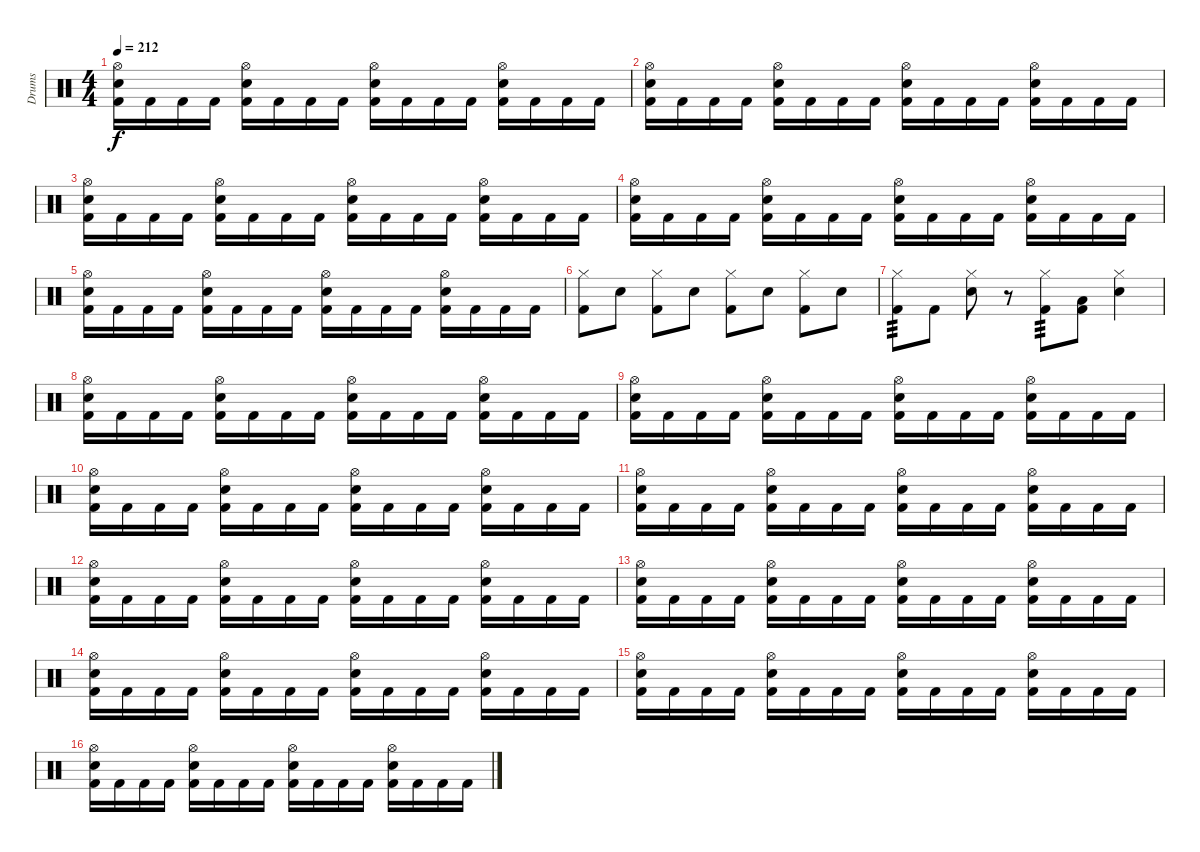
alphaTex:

\track ("Drums" "Drums") {instrument percussion}
\staff {score}
\articulation defaults
\ts (4 4)
\tempo 212
\clef neutral
\ks c
("Hi-Hat (open)" "Snare (hit) 2" "Kick (hit) 2").16{dy f} "Kick (hit) 2".16 "Kick (hit) 2".16 "Kick (hit) 2".16 ("Hi-Hat (open)" "Snare (hit) 2" "Kick (hit) 2").16 "Kick (hit) 2".16 "Kick (hit) 2".16 "Kick (hit) 2".16 ("Hi-Hat (open)" "Snare (hit) 2" "Kick (hit) 2").16 "Kick (hit) 2".16 "Kick (hit) 2".16 "Kick (hit) 2".16 ("Hi-Hat (open)" "Snare (hit) 2" "Kick (hit) 2").16 "Kick (hit) 2".16 "Kick (hit) 2".16 "Kick (hit) 2".16 |
("Hi-Hat (open)" "Snare (hit) 2" "Kick (hit) 2").16 "Kick (hit) 2".16 "Kick (hit) 2".16 "Kick (hit) 2".16 ("Hi-Hat (open)" "Snare (hit) 2" "Kick (hit) 2").16 "Kick (hit) 2".16 "Kick (hit) 2".16 "Kick (hit) 2".16 ("Hi-Hat (open)" "Snare (hit) 2" "Kick (hit) 2").16 "Kick (hit) 2".16 "Kick (hit) 2".16 "Kick (hit) 2".16 ("Hi-Hat (open)" "Snare (hit) 2" "Kick (hit) 2").16 "Kick (hit) 2".16 "Kick (hit) 2".16 "Kick (hit) 2".16 |
("Hi-Hat (open)" "Snare (hit) 2" "Kick (hit) 2").16 "Kick (hit) 2".16 "Kick (hit) 2".16 "Kick (hit) 2".16 ("Hi-Hat (open)" "Snare (hit) 2" "Kick (hit) 2").16 "Kick (hit) 2".16 "Kick (hit) 2".16 "Kick (hit) 2".16 ("Hi-Hat (open)" "Snare (hit) 2" "Kick (hit) 2").16 "Kick (hit) 2".16 "Kick (hit) 2".16 "Kick (hit) 2".16 ("Hi-Hat (open)" "Snare (hit) 2" "Kick (hit) 2").16 "Kick (hit) 2".16 "Kick (hit) 2".16 "Kick (hit) 2".16 |
("Hi-Hat (open)" "Snare (hit) 2" "Kick (hit) 2").16 "Kick (hit) 2".16 "Kick (hit) 2".16 "Kick (hit) 2".16 ("Hi-Hat (open)" "Snare (hit) 2" "Kick (hit) 2").16 "Kick (hit) 2".16 "Kick (hit) 2".16 "Kick (hit) 2".16 ("Hi-Hat (open)" "Snare (hit) 2" "Kick (hit) 2").16 "Kick (hit) 2".16 "Kick (hit) 2".16 "Kick (hit) 2".16 ("Hi-Hat (open)" "Snare (hit) 2" "Kick (hit) 2").16 "Kick (hit) 2".16 "Kick (hit) 2".16 "Kick (hit) 2".16 |
("Hi-Hat (open)" "Snare (hit) 2" "Kick (hit) 2").16 "Kick (hit) 2".16 "Kick (hit) 2".16 "Kick (hit) 2".16 ("Hi-Hat (open)" "Snare (hit) 2" "Kick (hit) 2").16 "Kick (hit) 2".16 "Kick (hit) 2".16 "Kick (hit) 2".16 ("Hi-Hat (open)" "Snare (hit) 2" "Kick (hit) 2").16 "Kick (hit) 2".16 "Kick (hit) 2".16 "Kick (hit) 2".16 ("Hi-Hat (open)" "Snare (hit) 2" "Kick (hit) 2").16 "Kick (hit) 2".16 "Kick (hit) 2".16 "Kick (hit) 2".16 |
("Hi-Hat (closed)" "Kick (hit) 2").8 "Snare (hit) 2".8 ("Hi-Hat (closed)" "Kick (hit) 2").8 "Snare (hit) 2".8 ("Hi-Hat (closed)" "Kick (hit) 2").8 "Snare (hit) 2".8 ("Hi-Hat (closed)" "Kick (hit) 2").8 "Snare (hit) 2".8 |
("Hi-Hat (closed)" "Kick (hit) 2").8{tp 3} "Kick (hit) 2".8 ("Hi-Hat (closed)" "Snare (hit) 2").8 r.8 ("Hi-Hat (closed)" "Kick (hit) 2").8{tp 3} ("Low Tom (hit)" "Kick (hit) 2").8 ("Hi-Hat (closed)" "Snare (hit) 2").4 |
("Hi-Hat (open)" "Snare (hit) 2" "Kick (hit) 2").16 "Kick (hit) 2".16 "Kick (hit) 2".16 "Kick (hit) 2".16 ("Hi-Hat (open)" "Snare (hit) 2" "Kick (hit) 2").16 "Kick (hit) 2".16 "Kick (hit) 2".16 "Kick (hit) 2".16 ("Hi-Hat (open)" "Snare (hit) 2" "Kick (hit) 2").16 "Kick (hit) 2".16 "Kick (hit) 2".16 "Kick (hit) 2".16 ("Hi-Hat (open)" "Snare (hit) 2" "Kick (hit) 2").16 "Kick (hit) 2".16 "Kick (hit) 2".16 "Kick (hit) 2".16 |
("Hi-Hat (open)" "Snare (hit) 2" "Kick (hit) 2").16 "Kick (hit) 2".16 "Kick (hit) 2".16 "Kick (hit) 2".16 ("Hi-Hat (open)" "Snare (hit) 2" "Kick (hit) 2").16 "Kick (hit) 2".16 "Kick (hit) 2".16 "Kick (hit) 2".16 ("Hi-Hat (open)" "Snare (hit) 2" "Kick (hit) 2").16 "Kick (hit) 2".16 "Kick (hit) 2".16 "Kick (hit) 2".16 ("Hi-Hat (open)" "Snare (hit) 2" "Kick (hit) 2").16 "Kick (hit) 2".16 "Kick (hit) 2".16 "Kick (hit) 2".16 |
("Hi-Hat (open)" "Snare (hit) 2" "Kick (hit) 2").16 "Kick (hit) 2".16 "Kick (hit) 2".16 "Kick (hit) 2".16 ("Hi-Hat (open)" "Snare (hit) 2" "Kick (hit) 2").16 "Kick (hit) 2".16 "Kick (hit) 2".16 "Kick (hit) 2".16 ("Hi-Hat (open)" "Snare (hit) 2" "Kick (hit) 2").16 "Kick (hit) 2".16 "Kick (hit) 2".16 "Kick (hit) 2".16 ("Hi-Hat (open)" "Snare (hit) 2" "Kick (hit) 2").16 "Kick (hit) 2".16 "Kick (hit) 2".16 "Kick (hit) 2".16 |
("Hi-Hat (open)" "Snare (hit) 2" "Kick (hit) 2").16 "Kick (hit) 2".16 "Kick (hit) 2".16 "Kick (hit) 2".16 ("Hi-Hat (open)" "Snare (hit) 2" "Kick (hit) 2").16 "Kick (hit) 2".16 "Kick (hit) 2".16 "Kick (hit) 2".16 ("Hi-Hat (open)" "Snare (hit) 2" "Kick (hit) 2").16 "Kick (hit) 2".16 "Kick (hit) 2".16 "Kick (hit) 2".16 ("Hi-Hat (open)" "Snare (hit) 2" "Kick (hit) 2").16 "Kick (hit) 2".16 "Kick (hit) 2".16 "Kick (hit) 2".16 |
("Hi-Hat (open)" "Snare (hit) 2" "Kick (hit) 2").16 "Kick (hit) 2".16 "Kick (hit) 2".16 "Kick (hit) 2".16 ("Hi-Hat (open)" "Snare (hit) 2" "Kick (hit) 2").16 "Kick (hit) 2".16 "Kick (hit) 2".16 "Kick (hit) 2".16 ("Hi-Hat (open)" "Snare (hit) 2" "Kick (hit) 2").16 "Kick (hit) 2".16 "Kick (hit) 2".16 "Kick (hit) 2".16 ("Hi-Hat (open)" "Snare (hit) 2" "Kick (hit) 2").16 "Kick (hit) 2".16 "Kick (hit) 2".16 "Kick (hit) 2".16 |
("Hi-Hat (open)" "Snare (hit) 2" "Kick (hit) 2").16 "Kick (hit) 2".16 "Kick (hit) 2".16 "Kick (hit) 2".16 ("Hi-Hat (open)" "Snare (hit) 2" "Kick (hit) 2").16 "Kick (hit) 2".16 "Kick (hit) 2".16 "Kick (hit) 2".16 ("Hi-Hat (open)" "Snare (hit) 2" "Kick (hit) 2").16 "Kick (hit) 2".16 "Kick (hit) 2".16 "Kick (hit) 2".16 ("Hi-Hat (open)" "Snare (hit) 2" "Kick (hit) 2").16 "Kick (hit) 2".16 "Kick (hit) 2".16 "Kick (hit) 2".16 |
("Hi-Hat (open)" "Snare (hit) 2" "Kick (hit) 2").16 "Kick (hit) 2".16 "Kick (hit) 2".16 "Kick (hit) 2".16 ("Hi-Hat (open)" "Snare (hit) 2" "Kick (hit) 2").16 "Kick (hit) 2".16 "Kick (hit) 2".16 "Kick (hit) 2".16 ("Hi-Hat (open)" "Snare (hit) 2" "Kick (hit) 2").16 "Kick (hit) 2".16 "Kick (hit) 2".16 "Kick (hit) 2".16 ("Hi-Hat (open)" "Snare (hit) 2" "Kick (hit) 2").16 "Kick (hit) 2".16 "Kick (hit) 2".16 "Kick (hit) 2".16 |
("Hi-Hat (open)" "Snare (hit) 2" "Kick (hit) 2").16 "Kick (hit) 2".16 "Kick (hit) 2".16 "Kick (hit) 2".16 ("Hi-Hat (open)" "Snare (hit) 2" "Kick (hit) 2").16 "Kick (hit) 2".16 "Kick (hit) 2".16 "Kick (hit) 2".16 ("Hi-Hat (open)" "Snare (hit) 2" "Kick (hit) 2").16 "Kick (hit) 2".16 "Kick (hit) 2".16 "Kick (hit) 2".16 ("Hi-Hat (open)" "Snare (hit) 2" "Kick (hit) 2").16 "Kick (hit) 2".16 "Kick (hit) 2".16 "Kick (hit) 2".16 |
("Hi-Hat (open)" "Snare (hit) 2" "Kick (hit) 2").16 "Kick (hit) 2".16 "Kick (hit) 2".16 "Kick (hit) 2".16 ("Hi-Hat (open)" "Snare (hit) 2" "Kick (hit) 2").16 "Kick (hit) 2".16 "Kick (hit) 2".16 "Kick (hit) 2".16 ("Hi-Hat (open)" "Snare (hit) 2" "Kick (hit) 2").16 "Kick (hit) 2".16 "Kick (hit) 2".16 "Kick (hit) 2".16 ("Hi-Hat (open)" "Snare (hit) 2" "Kick (hit) 2").16 "Kick (hit) 2".16 "Kick (hit) 2".16 "Kick (hit) 2".16
